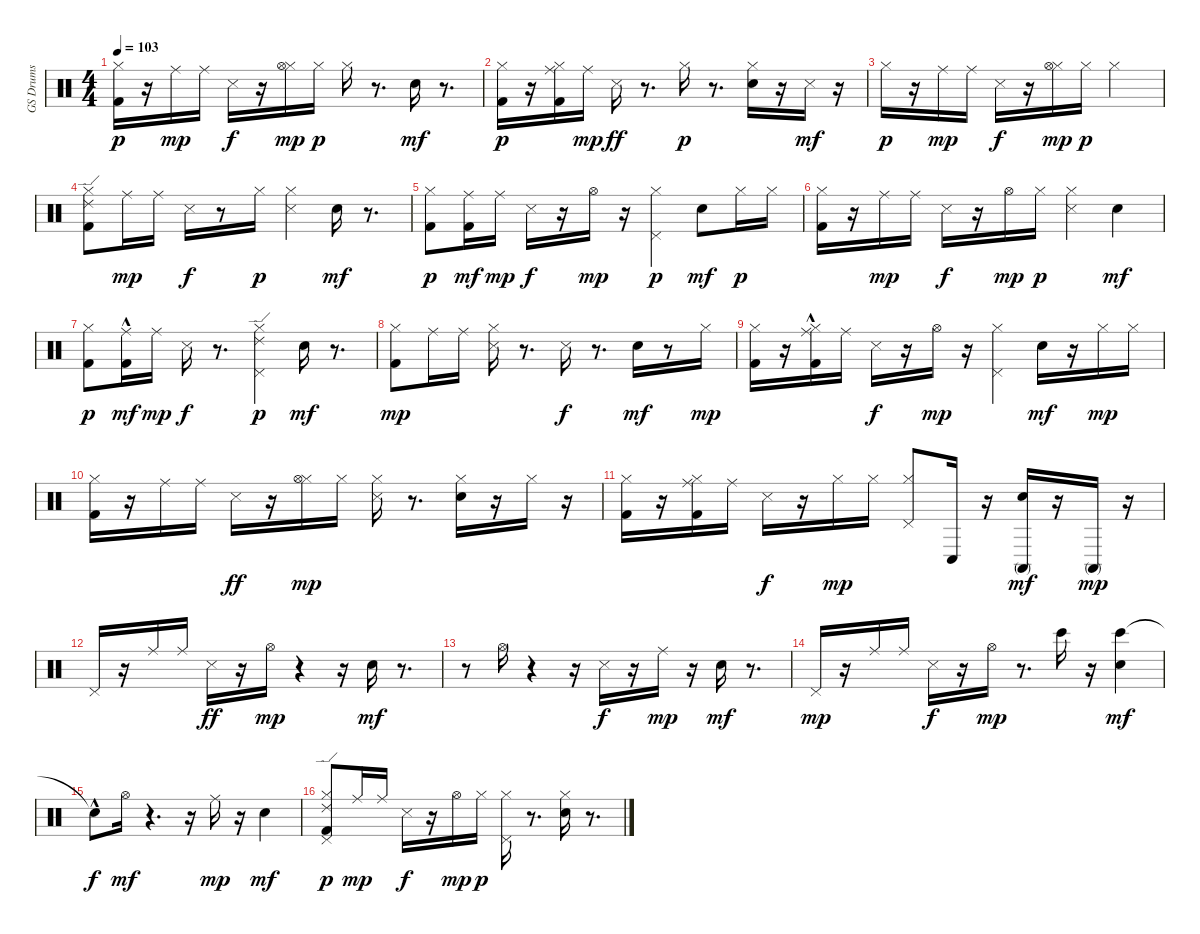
\track ("GS Drums" "GS Drums") {instrument percussion}
\staff {score}
\articulation defaults
\ts (4 4)
\tempo 103
\clef neutral
\ks c
("Kick (hit) 2" "Hi-Hat (closed)").16{dy p} r.16 "Ride (middle)".16{dy mp} "Ride (middle)".16 "Snare (side stick) 3".16{dy f} r.16 ("Hi-Hat (closed)" "Hi-Hat (open)").16{dy mp} "Hi-Hat (closed)".16{dy p} "Hi-Hat (closed)".16 r.8{d} "Snare (hit) 2".16{dy mf} r.8{d} |
("Kick (hit) 2" "Hi-Hat (closed)").16{dy p} r.16 ("Ride (middle)" "Kick (hit) 2" "Hi-Hat (closed)").16 "Ride (middle)".16{dy mp} "Snare (side stick) 3".16{dy ff} r.8{d} "Hi-Hat (closed)".16{dy p} r.8{d} ("Snare (hit) 2" "Hi-Hat (closed)").16 r.16 "Snare (side stick) 3".16{dy mf} r.16 |
"Hi-Hat (closed)".16{dy p} r.16 "Ride (middle)".16{dy mp} "Ride (middle)".16 "Snare (side stick) 3".16{dy f} r.16 ("Hi-Hat (closed)" "Hi-Hat (open)").16{dy mp} "Hi-Hat (closed)".16{dy p} "Hi-Hat (closed)".2 |
("Ride (edge) 2" "Kick (hit) 2" "Hi-Hat (closed)").8 "Ride (middle)".16{dy mp} "Ride (middle)".16 "Snare (side stick) 3".16{dy f} r.8 "Hi-Hat (closed)".16{dy p} ("Metronome (hit)" "Hi-Hat (closed)").4 "Snare (hit) 2".16{dy mf} r.8{d} |
("Kick (hit) 2" "Hi-Hat (closed)").8{dy p} ("Ride (middle)" "Kick (hit) 2").16{dy mf} "Ride (middle)".16{dy mp} "Snare (side stick) 3".16{dy f} r.16 "Hi-Hat (open)".16{dy mp} r.16 ("Pedal Hi-Hat (hit)" "Hi-Hat (closed)").4{dy p} "Snare (hit) 2".8{dy mf} "Hi-Hat (closed)".16{dy p} "Hi-Hat (closed)".16 |
("Kick (hit) 2" "Hi-Hat (closed)").16 r.16 "Ride (middle)".16{dy mp} "Ride (middle)".16 "Snare (side stick) 3".16{dy f} r.16 "Hi-Hat (open)".16{dy mp} "Hi-Hat (closed)".16{dy p} ("Metronome (hit)" "Hi-Hat (closed)").4 "Snare (hit) 2".4{dy mf} |
("Kick (hit) 2" "Hi-Hat (closed)").8{dy p} ("Ride (middle)" "Kick (hit) 2"{hac}).16{dy mf} "Ride (middle)".16{dy mp} "Snare (side stick) 3".16{dy f} r.8{d} ("Pedal Hi-Hat (hit)" "Ride (edge) 2" "Hi-Hat (closed)").4{dy p} "Snare (hit) 2".16{dy mf} r.8{d} |
("Kick (hit) 2" "Hi-Hat (closed)").8{dy mp} "Ride (middle)".16 "Ride (middle)".16 ("Hi-Hat (closed)" "Snare (side stick) 3").16 r.8{d} "Metronome (hit)".16{dy f} r.8{d} "Snare (hit) 2".16{dy mf} r.8 "Hi-Hat (closed)".16{dy mp} |
("Kick (hit) 2" "Hi-Hat (closed)").16 r.16 ("Ride (middle)" "Kick (hit) 2" "Hi-Hat (closed)"{hac}).16 "Ride (middle)".16 "Snare (side stick) 3".16{dy f} r.16 "Hi-Hat (open)".16{dy mp} r.16 ("Pedal Hi-Hat (hit)" "Hi-Hat (closed)").4 "Snare (hit) 2".16{dy mf} r.16 "Hi-Hat (closed)".16{dy mp} "Hi-Hat (closed)".16 |
("Kick (hit) 2" "Hi-Hat (closed)").16 r.16 "Ride (middle)".16 "Ride (middle)".16 "Snare (side stick) 3".16{dy ff} r.16 ("Hi-Hat (closed)" "Hi-Hat (open)").16{dy mp} "Hi-Hat (closed)".16 ("Metronome (hit)" "Hi-Hat (closed)").16 r.8{d} ("Snare (hit) 2" "Hi-Hat (closed)").16 r.16 "Hi-Hat (closed)".16 r.16 |
("Kick (hit) 2" "Hi-Hat (closed)").16 r.16 ("Ride (middle)" "Kick (hit) 2" "Hi-Hat (closed)").16 "Ride (middle)".16 "Snare (side stick) 3".16{dy f} r.16 "Hi-Hat (closed)".16{dy mp} "Hi-Hat (closed)".16 ("Pedal Hi-Hat (hit)" "Hi-Hat (closed)").8 "Conga low (hit)".16 r.16 ("Conga high (mute)" "Snare (hit) 2").16{dy mf} r.16 "Conga high (mute)".16{dy mp} r.16 |
"Pedal Hi-Hat (hit)".16 r.16 "Ride (middle)".16 "Ride (middle)".16 "Snare (side stick) 3".16{dy ff} r.16 "Hi-Hat (open)".16{dy mp} r.4 r.16 "Snare (hit) 2".16{dy mf} r.8{d} |
r.8 "Hi-Hat (open)".16 r.4 r.16 "Snare (side stick) 3".16{dy f} r.16 "Ride (middle)".16{dy mp} r.16 "Snare (hit) 2".16{dy mf} r.8{d} |
"Pedal Hi-Hat (hit)".16{dy mp} r.16 "Ride (middle)".16 "Ride (middle)".16 "Snare (side stick) 3".16{dy f} r.16 "Hi-Hat (open)".16{dy mp} r.8{d} "Bongo High (hit)".16 r.16 ("Bongo High (hit)" "Snare (hit) 2").4{dy mf} |
"Snare (hit)"{hac t}.8{dy f} "Hi-Hat (open)".16{dy mf} r.4{d} r.16 "Ride (middle)".16{dy mp} r.16 "Snare (hit) 2".4{dy mf} |
("Pedal Hi-Hat (hit)" "Ride (edge) 2" "Kick (hit) 2" "Hi-Hat (closed)").8{dy p} "Ride (middle)".16{dy mp} "Ride (middle)".16 "Snare (side stick) 3".16{dy f} r.16 "Hi-Hat (open)".16{dy mp} "Hi-Hat (closed)".16{dy p} ("Pedal Hi-Hat (hit)" "Hi-Hat (closed)").16 r.8{d} ("Snare (hit) 2" "Hi-Hat (closed)").16 r.8{d}
